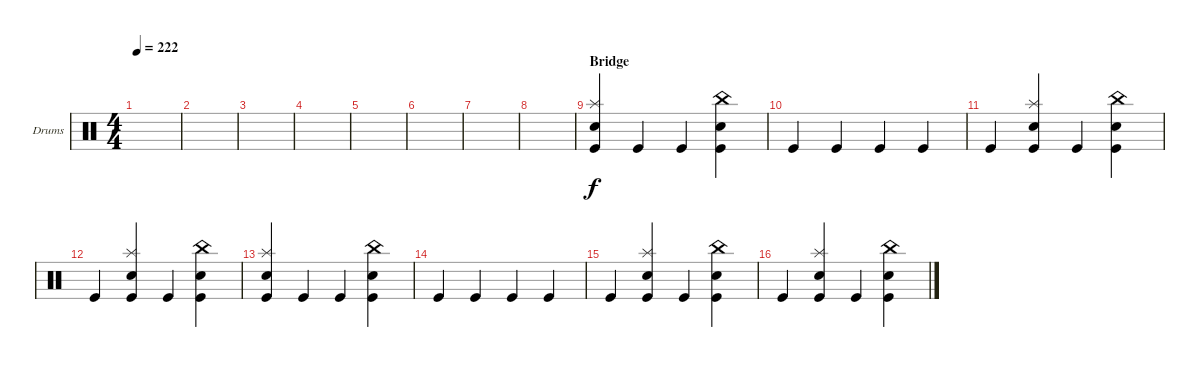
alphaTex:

\defaultSystemsLayout 4
\bracketExtendMode groupsimilarinstruments
\firstSystemTrackNameOrientation horizontal
\otherSystemsTrackNameOrientation horizontal
\track ("Drumkit" "Drums") {mute instrument percussion}
\staff {score}
\articulation defaults
\ts (4 4)
\tempo 222
\clef neutral
\ks c
|
|
|
|
|
|
|
|
\section ("" "Bridge")
("Kick (hit)" "Splash (hit)" "Snare (hit) 2").4 "Kick (hit)".4 "Kick (hit)".4 ("Kick (hit)" "Snare (hit) 2" "China (hit)").4 |
"Kick (hit)".4 "Kick (hit)".4 "Kick (hit)".4 "Kick (hit)".4 |
"Kick (hit)".4 ("Kick (hit)" "Snare (hit) 2" "Splash (hit)").4 "Kick (hit)".4 ("Kick (hit)" "China (hit)" "Snare (hit) 2").4 |
"Kick (hit)".4 ("Kick (hit)" "Snare (hit) 2" "Splash (hit)").4 "Kick (hit)".4 ("Kick (hit)" "China (hit)" "Snare (hit) 2").4 |
("Kick (hit)" "Splash (hit)" "Snare (hit) 2").4 "Kick (hit)".4 "Kick (hit)".4 ("Kick (hit)" "Snare (hit) 2" "China (hit)").4 |
"Kick (hit)".4 "Kick (hit)".4 "Kick (hit)".4 "Kick (hit)".4 |
"Kick (hit)".4 ("Kick (hit)" "Snare (hit) 2" "Splash (hit)").4 "Kick (hit)".4 ("Kick (hit)" "China (hit)" "Snare (hit) 2").4 |
"Kick (hit)".4 ("Kick (hit)" "Snare (hit) 2" "Splash (hit)").4 "Kick (hit)".4 ("Kick (hit)" "China (hit)" "Snare (hit) 2").4
